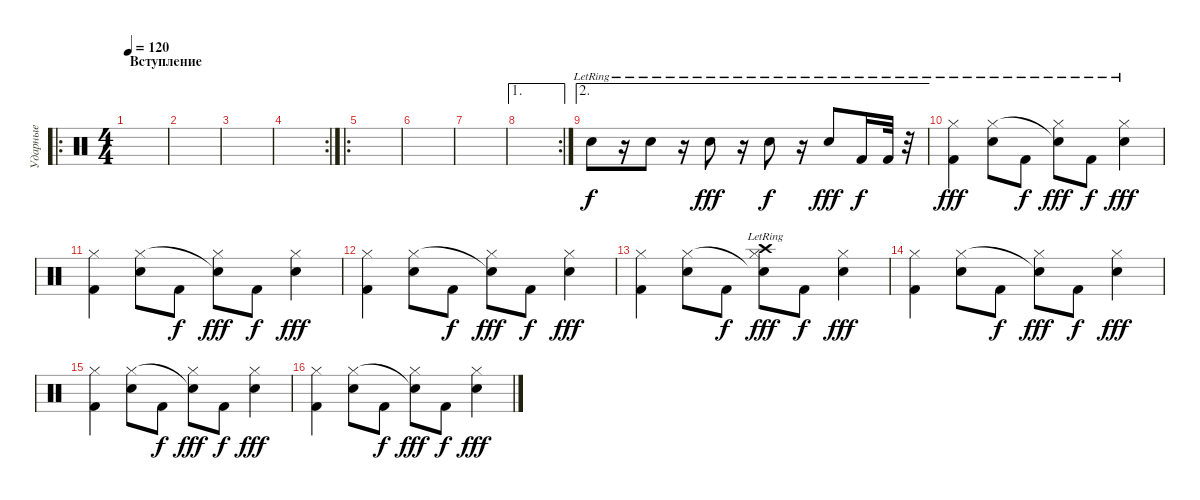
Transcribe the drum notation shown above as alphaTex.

\track ("Ударные" "Ударные") {instrument percussion}
\staff {score}
\articulation defaults
\ro
\ts (4 4)
\section ("" "Вступление")
\tempo 120
\clef neutral
\ks c
|
|
|
\rc 2
|
\ro
|
|
|
\ae 1
\rc 2
|
\ae 2 "Snare (hit) 2"{lr}.8
r.16 "Electric Snare (hit)"{lr}.8 r.16 "Snare (hit) 2"{lr}.8{dy fff} r.16 "Electric Snare (hit)"{lr}.8{dy f} r.16 "Snare (hit) 2"{lr}.8{dy fff} "Kick (hit) 2"{lr}.16{dy f} "Kick (hit) 2"{lr}.32 r.32 |
("Hi-Hat (closed)" "Kick (hit) 2"{lr}).4{dy fff} ("Snare (hit) 2"{lr} "Hi-Hat (closed)").8 "Kick (hit) 2"{lr}.8{dy f} ("Hi-Hat (closed)"{lr} "Snare (hit)"{t}).8{dy fff} "Kick (hit) 2"{lr}.8{dy f} ("Snare (hit) 2"{lr} "Hi-Hat (closed)"{lr}).4{dy fff} |
("Hi-Hat (closed)" "Kick (hit) 2").4 ("Snare (hit) 2" "Hi-Hat (closed)").8 "Kick (hit) 2".8{dy f} ("Hi-Hat (closed)" "Snare (hit)"{t}).8{dy fff} "Kick (hit) 2".8{dy f} ("Snare (hit) 2" "Hi-Hat (closed)").4{dy fff} |
("Hi-Hat (closed)" "Kick (hit) 2").4 ("Snare (hit) 2" "Hi-Hat (closed)").8 "Kick (hit) 2".8{dy f} ("Hi-Hat (closed)" "Snare (hit)"{t}).8{dy fff} "Kick (hit) 2".8{dy f} ("Snare (hit) 2" "Hi-Hat (closed)").4{dy fff} |
("Hi-Hat (closed)" "Kick (hit) 2").4 ("Snare (hit) 2" "Hi-Hat (closed)").8 "Kick (hit) 2".8{dy f} ("Hi-Hat (closed)" "Snare (hit)"{t} "Crash high (hit)"{lr}).8{dy fff} "Kick (hit) 2".8{dy f} ("Snare (hit) 2" "Hi-Hat (closed)").4{dy fff} |
("Hi-Hat (closed)" "Kick (hit) 2").4 ("Snare (hit) 2" "Hi-Hat (closed)").8 "Kick (hit) 2".8{dy f} ("Hi-Hat (closed)" "Snare (hit)"{t}).8{dy fff} "Kick (hit) 2".8{dy f} ("Snare (hit) 2" "Hi-Hat (closed)").4{dy fff} |
("Hi-Hat (closed)" "Kick (hit) 2").4 ("Snare (hit) 2" "Hi-Hat (closed)").8 "Kick (hit) 2".8{dy f} ("Hi-Hat (closed)" "Snare (hit)"{t}).8{dy fff} "Kick (hit) 2".8{dy f} ("Snare (hit) 2" "Hi-Hat (closed)").4{dy fff} |
("Hi-Hat (closed)" "Kick (hit) 2").4 ("Snare (hit) 2" "Hi-Hat (closed)").8 "Kick (hit) 2".8{dy f} ("Hi-Hat (closed)" "Snare (hit)"{t}).8{dy fff} "Kick (hit) 2".8{dy f} ("Snare (hit) 2" "Hi-Hat (closed)").4{dy fff}
